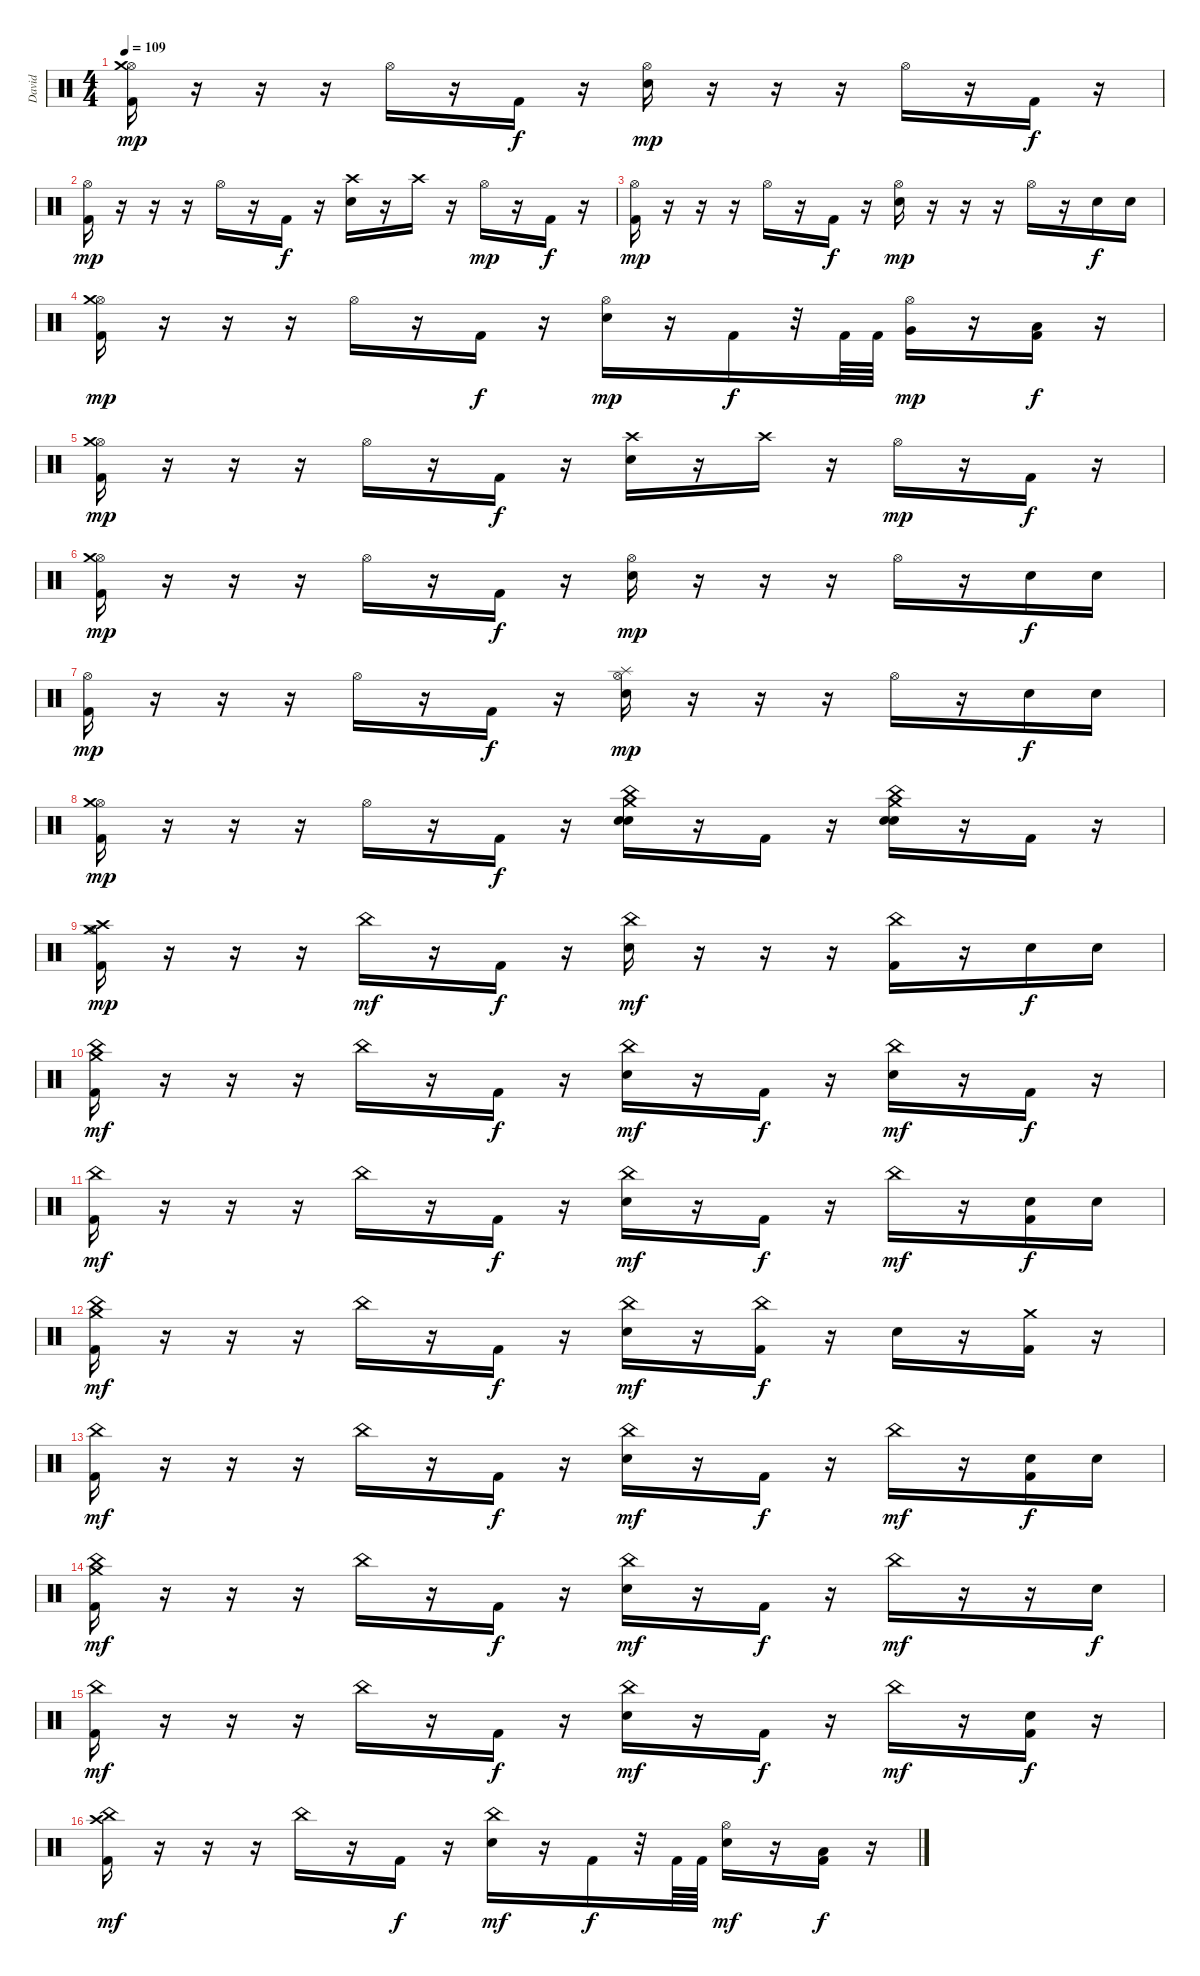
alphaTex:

\track ("David" "David") {instrument percussion}
\staff {score}
\articulation defaults
\ts (4 4)
\tempo 109
\clef neutral
\ks c
("Hi-Hat (open)" "Crash medium (hit)" "Kick (hit) 2").16{dy mp} r.16 r.16 r.16 "Hi-Hat (open)".16 r.16 "Kick (hit) 2".16{dy f} r.16 ("Hi-Hat (open)" "Snare (hit) 2").16{dy mp} r.16 r.16 r.16 "Hi-Hat (open)".16 r.16 "Kick (hit) 2".16{dy f} r.16 |
("Hi-Hat (open)" "Kick (hit) 2").16{dy mp} r.16 r.16 r.16 "Hi-Hat (open)".16 r.16 "Kick (hit) 2".16{dy f} r.16 ("Crash high (hit)" "Snare (hit) 2").16 r.16 "Crash high (hit)".16 r.16 "Hi-Hat (open)".16{dy mp} r.16 "Kick (hit) 2".16{dy f} r.16 |
("Hi-Hat (open)" "Kick (hit) 2").16{dy mp} r.16 r.16 r.16 "Hi-Hat (open)".16 r.16 "Kick (hit) 2".16{dy f} r.16 ("Hi-Hat (open)" "Snare (hit) 2").16{dy mp} r.16 r.16 r.16 "Hi-Hat (open)".16 r.16 "Snare (hit) 2".16{dy f} "Snare (hit) 2".16 |
("Hi-Hat (open)" "Crash medium (hit)" "Kick (hit) 2").16{dy mp} r.16 r.16 r.16 "Hi-Hat (open)".16 r.16 "Kick (hit) 2".16{dy f} r.16 ("Hi-Hat (open)" "Snare (hit) 2").16{dy mp} r.16 "Kick (hit) 2".16{dy f} r.32 "Kick (hit) 2".64 "Kick (hit) 2".64 ("Hi-Hat (open)" "Very Low Tom (hit)").16{dy mp} r.16 ("Low Floor Tom (hit)" "Kick (hit) 2").16{dy f} r.16 |
("Hi-Hat (open)" "Crash medium (hit)" "Kick (hit) 2").16{dy mp} r.16 r.16 r.16 "Hi-Hat (open)".16 r.16 "Kick (hit) 2".16{dy f} r.16 ("Crash high (hit)" "Snare (hit) 2").16 r.16 "Crash high (hit)".16 r.16 "Hi-Hat (open)".16{dy mp} r.16 "Kick (hit) 2".16{dy f} r.16 |
("Hi-Hat (open)" "Crash medium (hit)" "Kick (hit) 2").16{dy mp} r.16 r.16 r.16 "Hi-Hat (open)".16 r.16 "Kick (hit) 2".16{dy f} r.16 ("Hi-Hat (open)" "Snare (hit) 2").16{dy mp} r.16 r.16 r.16 "Hi-Hat (open)".16 r.16 "Snare (hit) 2".16{dy f} "Snare (hit) 2".16 |
("Hi-Hat (open)" "Kick (hit) 2").16{dy mp} r.16 r.16 r.16 "Hi-Hat (open)".16 r.16 "Kick (hit) 2".16{dy f} r.16 ("Hi-Hat (open)" "Splash (hit)" "Snare (hit) 2").16{dy mp} r.16 r.16 r.16 "Hi-Hat (open)".16 r.16 "Snare (hit) 2".16{dy f} "Snare (hit) 2".16 |
("Hi-Hat (open)" "Crash medium (hit)" "Kick (hit) 2").16{dy mp} r.16 r.16 r.16 "Hi-Hat (open)".16 r.16 "Kick (hit) 2".16{dy f} r.16 ("China (hit)" "Crash medium (hit)" "Electric Snare (hit)" "Snare (hit) 2").16 r.16 "Kick (hit) 2".16 r.16 ("China (hit)" "Crash medium (hit)" "Electric Snare (hit)" "Snare (hit) 2").16 r.16 "Kick (hit) 2".16 r.16 |
("Hi-Hat (open)" "Crash medium (hit)" "Crash high (hit)" "Kick (hit) 2").16{dy mp} r.16 r.16 r.16 "China (hit)".16{dy mf} r.16 "Kick (hit) 2".16{dy f} r.16 ("China (hit)" "Snare (hit) 2").16{dy mf} r.16 r.16 r.16 ("China (hit)" "Kick (hit) 2").16 r.16 "Snare (hit) 2".16{dy f} "Snare (hit) 2".16 |
("China (hit)" "Crash medium (hit)" "Kick (hit) 2").16{dy mf} r.16 r.16 r.16 "China (hit)".16 r.16 "Kick (hit) 2".16{dy f} r.16 ("China (hit)" "Snare (hit) 2").16{dy mf} r.16 "Kick (hit) 2".16{dy f} r.16 ("China (hit)" "Snare (hit) 2").16{dy mf} r.16 "Kick (hit) 2".16{dy f} r.16 |
("China (hit)" "Kick (hit) 2").16{dy mf} r.16 r.16 r.16 "China (hit)".16 r.16 "Kick (hit) 2".16{dy f} r.16 ("China (hit)" "Snare (hit) 2").16{dy mf} r.16 "Kick (hit) 2".16{dy f} r.16 "China (hit)".16{dy mf} r.16 ("Snare (hit) 2" "Kick (hit) 2").16{dy f} "Snare (hit) 2".16 |
("China (hit)" "Crash medium (hit)" "Kick (hit) 2").16{dy mf} r.16 r.16 r.16 "China (hit)".16 r.16 "Kick (hit) 2".16{dy f} r.16 ("China (hit)" "Snare (hit) 2").16{dy mf} r.16 ("China (hit)" "Kick (hit) 2").16{dy f} r.16 "Snare (hit) 2".16 r.16 ("Crash medium (hit)" "Kick (hit) 2").16 r.16 |
("China (hit)" "Kick (hit) 2").16{dy mf} r.16 r.16 r.16 "China (hit)".16 r.16 "Kick (hit) 2".16{dy f} r.16 ("China (hit)" "Snare (hit) 2").16{dy mf} r.16 "Kick (hit) 2".16{dy f} r.16 "China (hit)".16{dy mf} r.16 ("Snare (hit) 2" "Kick (hit) 2").16{dy f} "Snare (hit) 2".16 |
("China (hit)" "Crash medium (hit)" "Kick (hit) 2").16{dy mf} r.16 r.16 r.16 "China (hit)".16 r.16 "Kick (hit) 2".16{dy f} r.16 ("China (hit)" "Snare (hit) 2").16{dy mf} r.16 "Kick (hit) 2".16{dy f} r.16 "China (hit)".16{dy mf} r.16 r.16 "Snare (hit) 2".16{dy f} |
("China (hit)" "Kick (hit) 2").16{dy mf} r.16 r.16 r.16 "China (hit)".16 r.16 "Kick (hit) 2".16{dy f} r.16 ("China (hit)" "Snare (hit) 2").16{dy mf} r.16 "Kick (hit) 2".16{dy f} r.16 "China (hit)".16{dy mf} r.16 ("Snare (hit) 2" "Kick (hit) 2").16{dy f} r.16 |
("China (hit)" "Crash high (hit)" "Kick (hit) 2").16{dy mf} r.16 r.16 r.16 "China (hit)".16 r.16 "Kick (hit) 2".16{dy f} r.16 ("China (hit)" "Snare (hit) 2").16{dy mf} r.16 "Kick (hit) 2".16{dy f} r.32 "Kick (hit) 2".64 "Kick (hit) 2".64 ("Hi-Hat (open)" "Snare (hit) 2").16{dy mf} r.16 ("Low Floor Tom (hit)" "Kick (hit) 2").16{dy f} r.16
